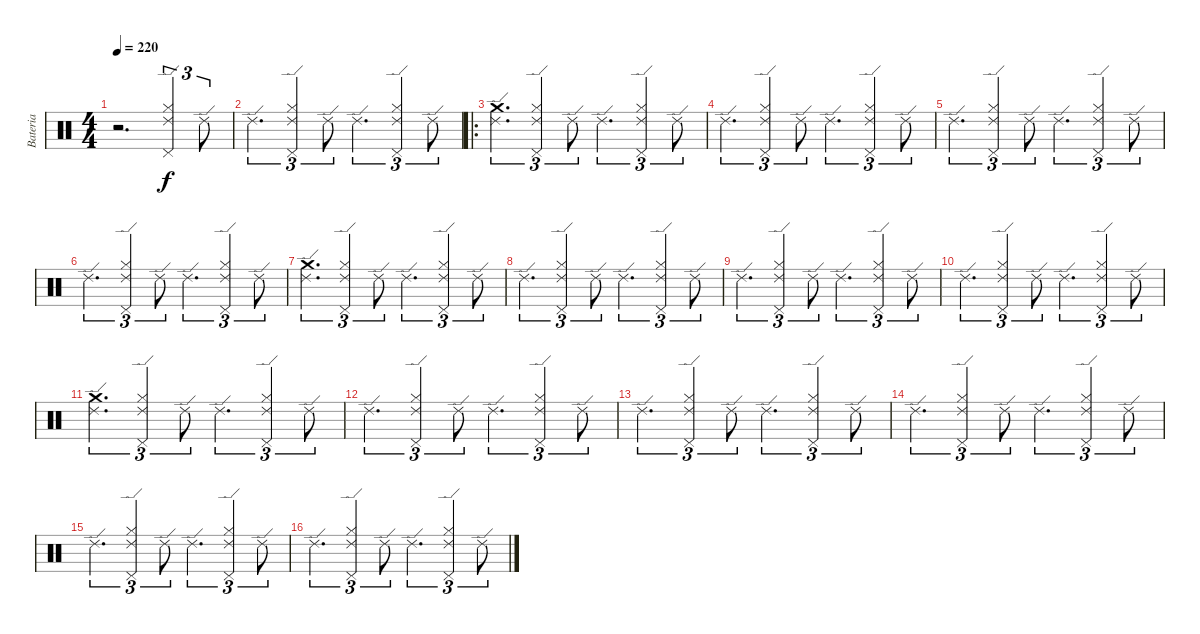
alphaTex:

\track ("Bateria" "Bateria") {instrument percussion}
\staff {score}
\articulation defaults
\ts (4 4)
\tempo 220
\clef neutral
\ks c
r.2{d dy f} ("Ride (edge) 2" "Hi-Hat (closed)" "Pedal Hi-Hat (hit)").4{tu (3 2)} "Ride (edge) 2".8{tu (3 2)} |
"Ride (edge) 2".4{d tu (3 2)} ("Ride (edge) 2" "Hi-Hat (closed)" "Pedal Hi-Hat (hit)").4{tu (3 2)} "Ride (edge) 2".8{tu (3 2)} "Ride (edge) 2".4{d tu (3 2)} ("Ride (edge) 2" "Hi-Hat (closed)" "Pedal Hi-Hat (hit)").4{tu (3 2)} "Ride (edge) 2".8{tu (3 2)} |
\ro
("Ride (edge) 2" "Crash medium (hit)").4{d tu (3 2)} ("Ride (edge) 2" "Hi-Hat (closed)" "Pedal Hi-Hat (hit)").4{tu (3 2)} "Ride (edge) 2".8{tu (3 2)} "Ride (edge) 2".4{d tu (3 2)} ("Ride (edge) 2" "Hi-Hat (closed)" "Pedal Hi-Hat (hit)").4{tu (3 2)} "Ride (edge) 2".8{tu (3 2)} |
"Ride (edge) 2".4{d tu (3 2)} ("Ride (edge) 2" "Hi-Hat (closed)" "Pedal Hi-Hat (hit)").4{tu (3 2)} "Ride (edge) 2".8{tu (3 2)} "Ride (edge) 2".4{d tu (3 2)} ("Ride (edge) 2" "Hi-Hat (closed)" "Pedal Hi-Hat (hit)").4{tu (3 2)} "Ride (edge) 2".8{tu (3 2)} |
"Ride (edge) 2".4{d tu (3 2)} ("Ride (edge) 2" "Hi-Hat (closed)" "Pedal Hi-Hat (hit)").4{tu (3 2)} "Ride (edge) 2".8{tu (3 2)} "Ride (edge) 2".4{d tu (3 2)} ("Ride (edge) 2" "Hi-Hat (closed)" "Pedal Hi-Hat (hit)").4{tu (3 2)} "Ride (edge) 2".8{tu (3 2)} |
"Ride (edge) 2".4{d tu (3 2)} ("Ride (edge) 2" "Hi-Hat (closed)" "Pedal Hi-Hat (hit)").4{tu (3 2)} "Ride (edge) 2".8{tu (3 2)} "Ride (edge) 2".4{d tu (3 2)} ("Ride (edge) 2" "Hi-Hat (closed)" "Pedal Hi-Hat (hit)").4{tu (3 2)} "Ride (edge) 2".8{tu (3 2)} |
("Ride (edge) 2" "Crash medium (hit)").4{d tu (3 2)} ("Ride (edge) 2" "Hi-Hat (closed)" "Pedal Hi-Hat (hit)").4{tu (3 2)} "Ride (edge) 2".8{tu (3 2)} "Ride (edge) 2".4{d tu (3 2)} ("Ride (edge) 2" "Hi-Hat (closed)" "Pedal Hi-Hat (hit)").4{tu (3 2)} "Ride (edge) 2".8{tu (3 2)} |
"Ride (edge) 2".4{d tu (3 2)} ("Ride (edge) 2" "Hi-Hat (closed)" "Pedal Hi-Hat (hit)").4{tu (3 2)} "Ride (edge) 2".8{tu (3 2)} "Ride (edge) 2".4{d tu (3 2)} ("Ride (edge) 2" "Hi-Hat (closed)" "Pedal Hi-Hat (hit)").4{tu (3 2)} "Ride (edge) 2".8{tu (3 2)} |
"Ride (edge) 2".4{d tu (3 2)} ("Ride (edge) 2" "Hi-Hat (closed)" "Pedal Hi-Hat (hit)").4{tu (3 2)} "Ride (edge) 2".8{tu (3 2)} "Ride (edge) 2".4{d tu (3 2)} ("Ride (edge) 2" "Hi-Hat (closed)" "Pedal Hi-Hat (hit)").4{tu (3 2)} "Ride (edge) 2".8{tu (3 2)} |
"Ride (edge) 2".4{d tu (3 2)} ("Ride (edge) 2" "Hi-Hat (closed)" "Pedal Hi-Hat (hit)").4{tu (3 2)} "Ride (edge) 2".8{tu (3 2)} "Ride (edge) 2".4{d tu (3 2)} ("Ride (edge) 2" "Hi-Hat (closed)" "Pedal Hi-Hat (hit)").4{tu (3 2)} "Ride (edge) 2".8{tu (3 2)} |
("Ride (edge) 2" "Crash medium (hit)").4{d tu (3 2)} ("Ride (edge) 2" "Hi-Hat (closed)" "Pedal Hi-Hat (hit)").4{tu (3 2)} "Ride (edge) 2".8{tu (3 2)} "Ride (edge) 2".4{d tu (3 2)} ("Ride (edge) 2" "Hi-Hat (closed)" "Pedal Hi-Hat (hit)").4{tu (3 2)} "Ride (edge) 2".8{tu (3 2)} |
"Ride (edge) 2".4{d tu (3 2)} ("Ride (edge) 2" "Hi-Hat (closed)" "Pedal Hi-Hat (hit)").4{tu (3 2)} "Ride (edge) 2".8{tu (3 2)} "Ride (edge) 2".4{d tu (3 2)} ("Ride (edge) 2" "Hi-Hat (closed)" "Pedal Hi-Hat (hit)").4{tu (3 2)} "Ride (edge) 2".8{tu (3 2)} |
"Ride (edge) 2".4{d tu (3 2)} ("Ride (edge) 2" "Hi-Hat (closed)" "Pedal Hi-Hat (hit)").4{tu (3 2)} "Ride (edge) 2".8{tu (3 2)} "Ride (edge) 2".4{d tu (3 2)} ("Ride (edge) 2" "Hi-Hat (closed)" "Pedal Hi-Hat (hit)").4{tu (3 2)} "Ride (edge) 2".8{tu (3 2)} |
"Ride (edge) 2".4{d tu (3 2)} ("Ride (edge) 2" "Hi-Hat (closed)" "Pedal Hi-Hat (hit)").4{tu (3 2)} "Ride (edge) 2".8{tu (3 2)} "Ride (edge) 2".4{d tu (3 2)} ("Ride (edge) 2" "Hi-Hat (closed)" "Pedal Hi-Hat (hit)").4{tu (3 2)} "Ride (edge) 2".8{tu (3 2)} |
"Ride (edge) 2".4{d tu (3 2)} ("Ride (edge) 2" "Hi-Hat (closed)" "Pedal Hi-Hat (hit)").4{tu (3 2)} "Ride (edge) 2".8{tu (3 2)} "Ride (edge) 2".4{d tu (3 2)} ("Ride (edge) 2" "Hi-Hat (closed)" "Pedal Hi-Hat (hit)").4{tu (3 2)} "Ride (edge) 2".8{tu (3 2)} |
"Ride (edge) 2".4{d tu (3 2)} ("Ride (edge) 2" "Hi-Hat (closed)" "Pedal Hi-Hat (hit)").4{tu (3 2)} "Ride (edge) 2".8{tu (3 2)} "Ride (edge) 2".4{d tu (3 2)} ("Ride (edge) 2" "Hi-Hat (closed)" "Pedal Hi-Hat (hit)").4{tu (3 2)} "Ride (edge) 2".8{tu (3 2)}
